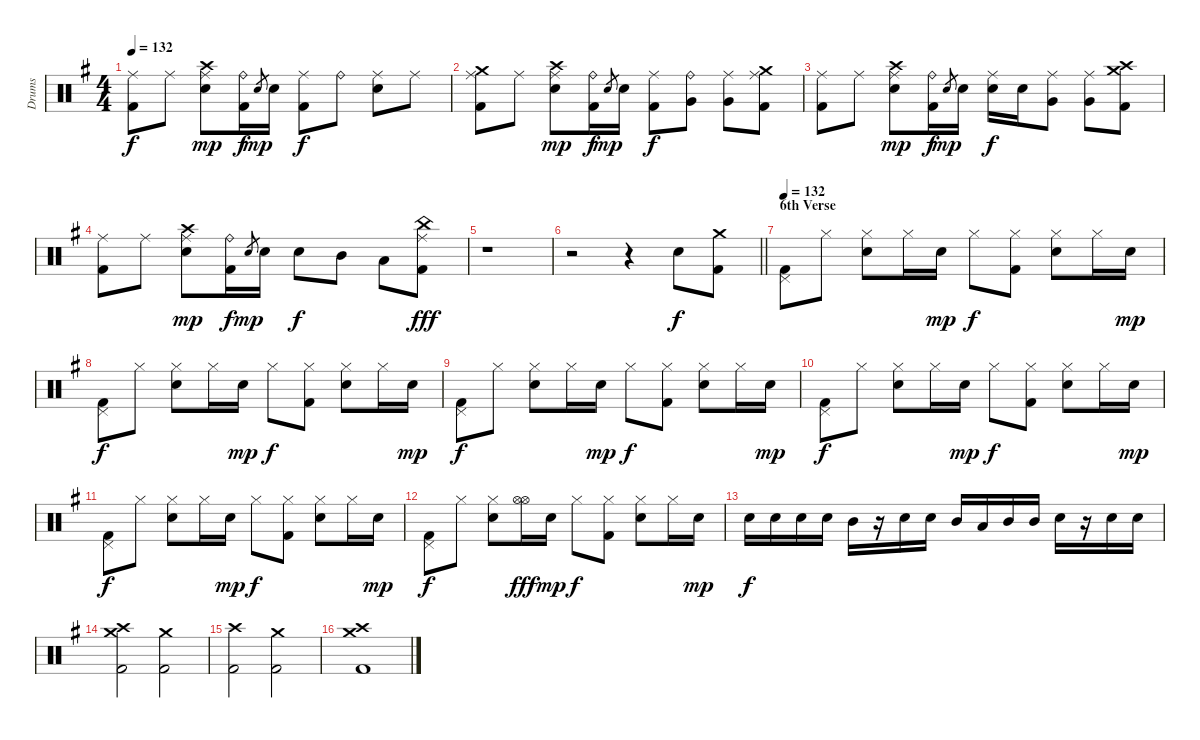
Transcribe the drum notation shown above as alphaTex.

\track ("Drums" "Drums") {instrument percussion}
\staff {score}
\articulation defaults
\ts (4 4)
\tempo 132
\clef neutral
\ks g
("Ride (middle)" "Kick (hit) 2").8{dy f} "Ride (middle)".8 ("Ride (middle)" "Snare (hit) 2" "Crash high (hit)").8{dy mp} ("Ride (bell)" "Kick (hit) 2").16{dy f} "Snare (hit) 2".8{gr dy mp} "Snare (hit) 2".16 ("Ride (middle)" "Kick (hit) 2").8{dy f} "Ride (bell)".8 ("Ride (middle)" "Snare (hit) 2").8 "Ride (middle)".8 |
("Ride (middle)" "Kick (hit) 2" "Crash medium (hit)").8 "Ride (middle)".8 ("Ride (middle)" "Snare (hit) 2" "Crash high (hit)").8{dy mp} ("Ride (bell)" "Kick (hit) 2").16{dy f} "Snare (hit) 2".8{gr dy mp} "Snare (hit) 2".16 ("Ride (middle)" "Kick (hit) 2").8{dy f} ("Ride (bell)" "Very Low Tom (hit)").8 ("Ride (middle)" "Very Low Tom (hit)").8 ("Ride (middle)" "Kick (hit) 2" "Crash medium (hit)").8 |
("Ride (middle)" "Kick (hit) 2").8 "Ride (middle)".8 ("Ride (middle)" "Snare (hit) 2" "Crash high (hit)").8{dy mp} ("Ride (bell)" "Kick (hit) 2").16{dy f} "Snare (hit) 2".8{gr dy mp} "Snare (hit) 2".16 ("Ride (middle)" "Snare (hit) 2").16{dy f} "Snare (hit) 2".16 ("Ride (middle)" "Very Low Tom (hit)").8 ("Ride (middle)" "Very Low Tom (hit)").8 ("Kick (hit) 2" "Crash high (hit)" "Crash medium (hit)").8 |
("Ride (middle)" "Kick (hit) 2").8 "Ride (middle)".8 ("Ride (middle)" "Snare (hit) 2" "Crash high (hit)").8{dy mp} ("Ride (bell)" "Kick (hit) 2").16{dy f} "Snare (hit) 2".8{gr dy mp} "Snare (hit) 2".16 "Snare (hit) 2".8{dy f} "Mid Tom (hit)".8 "Low Tom (hit)".8 ("Ride (middle)" "China (hit)" "Kick (hit) 2").8{dy fff} |
r.1 |
\barLineRight lightlight
r.2 r.4 "Snare (hit) 2".8{dy f} ("Kick (hit) 2" "Crash medium (hit)").8 |
\section ("" "6th Verse")
\tempo 132
("Kick (hit) 2" "Pedal Hi-Hat (hit)").8 "Hi-Hat (closed)".8 ("Snare (hit) 2" "Hi-Hat (closed)").8 "Hi-Hat (closed)".16 "Snare (hit) 2".16{dy mp} "Hi-Hat (closed)".8{dy f} ("Kick (hit) 2" "Hi-Hat (closed)").8 ("Snare (hit) 2" "Hi-Hat (closed)").8 "Hi-Hat (closed)".16 "Snare (hit) 2".16{dy mp} |
("Kick (hit) 2" "Pedal Hi-Hat (hit)").8{dy f} "Hi-Hat (closed)".8 ("Snare (hit) 2" "Hi-Hat (closed)").8 "Hi-Hat (closed)".16 "Snare (hit) 2".16{dy mp} "Hi-Hat (closed)".8{dy f} ("Kick (hit) 2" "Hi-Hat (closed)").8 ("Snare (hit) 2" "Hi-Hat (closed)").8 "Hi-Hat (closed)".16 "Snare (hit) 2".16{dy mp} |
("Kick (hit) 2" "Pedal Hi-Hat (hit)").8{dy f} "Hi-Hat (closed)".8 ("Snare (hit) 2" "Hi-Hat (closed)").8 "Hi-Hat (closed)".16 "Snare (hit) 2".16{dy mp} "Hi-Hat (closed)".8{dy f} ("Kick (hit) 2" "Hi-Hat (closed)").8 ("Snare (hit) 2" "Hi-Hat (closed)").8 "Hi-Hat (closed)".16 "Snare (hit) 2".16{dy mp} |
("Kick (hit) 2" "Pedal Hi-Hat (hit)").8{dy f} "Hi-Hat (closed)".8 ("Snare (hit) 2" "Hi-Hat (closed)").8 "Hi-Hat (closed)".16 "Snare (hit) 2".16{dy mp} "Hi-Hat (closed)".8{dy f} ("Kick (hit) 2" "Hi-Hat (closed)").8 ("Snare (hit) 2" "Hi-Hat (closed)").8 "Hi-Hat (closed)".16 "Snare (hit) 2".16{dy mp} |
("Kick (hit) 2" "Pedal Hi-Hat (hit)").8{dy f} "Hi-Hat (closed)".8 ("Snare (hit) 2" "Hi-Hat (closed)").8 "Hi-Hat (closed)".16 "Snare (hit) 2".16{dy mp} "Hi-Hat (closed)".8{dy f} ("Kick (hit) 2" "Hi-Hat (closed)").8 ("Snare (hit) 2" "Hi-Hat (closed)").8 "Hi-Hat (closed)".16 "Snare (hit) 2".16{dy mp} |
("Kick (hit) 2" "Pedal Hi-Hat (hit)").8{dy f} "Hi-Hat (closed)".8 ("Snare (hit) 2" "Hi-Hat (closed)").8 ("Hi-Hat (open)" "Hi-Hat (open)").16{dy fff} "Snare (hit) 2".16{dy mp} "Hi-Hat (closed)".8{dy f} ("Kick (hit) 2" "Hi-Hat (closed)").8 ("Snare (hit) 2" "Hi-Hat (closed)").8 "Hi-Hat (closed)".16 "Snare (hit) 2".16{dy mp} |
"Snare (hit) 2".16{dy f} "Snare (hit) 2".16 "Snare (hit) 2".16 "Snare (hit) 2".16 "Mid Tom (hit)".16 r.16 "Snare (hit) 2".16 "Snare (hit) 2".16 "Mid Tom (hit)".16 "Low Tom (hit)".16 "Mid Tom (hit)".16 "Mid Tom (hit)".16 "Snare (hit) 2".16 r.16 "Snare (hit) 2".16 "Snare (hit) 2".16 |
("Kick (hit) 2" "Crash medium (hit)" "Crash high (hit)").2 ("Kick (hit) 2" "Crash medium (hit)").2 |
("Kick (hit) 2" "Crash high (hit)").2 ("Kick (hit) 2" "Crash medium (hit)").2 |
("Kick (hit) 2" "Crash medium (hit)" "Crash high (hit)").1
